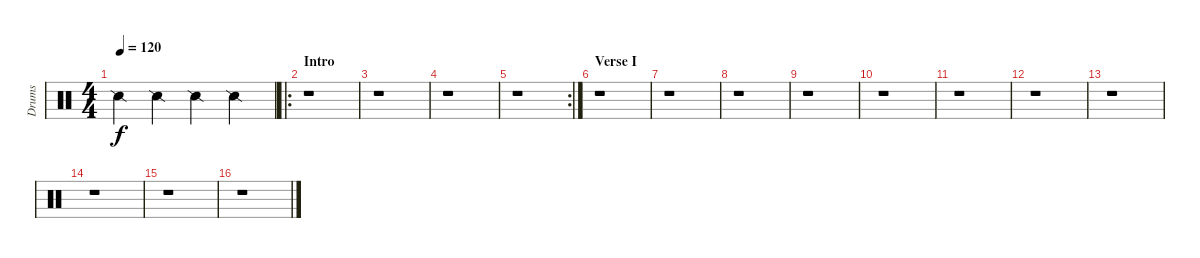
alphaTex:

\track ("Drums" "Drums") {instrument percussion}
\staff {score}
\articulation defaults
\ts (4 4)
\tempo 120
\clef neutral
\ks c "Snare (side stick) 2".4{dy f} "Snare (side stick) 2".4 "Snare (side stick) 2".4 "Snare (side stick) 2".4
|
\ro
\section ("" "Intro")
r.1 |
r.1 |
r.1 |
\rc 2
r.1 |
\section ("" "Verse I")
r.1 |
r.1 |
r.1 |
r.1 |
r.1 |
r.1 |
r.1 |
r.1 |
r.1 |
r.1 |
r.1
